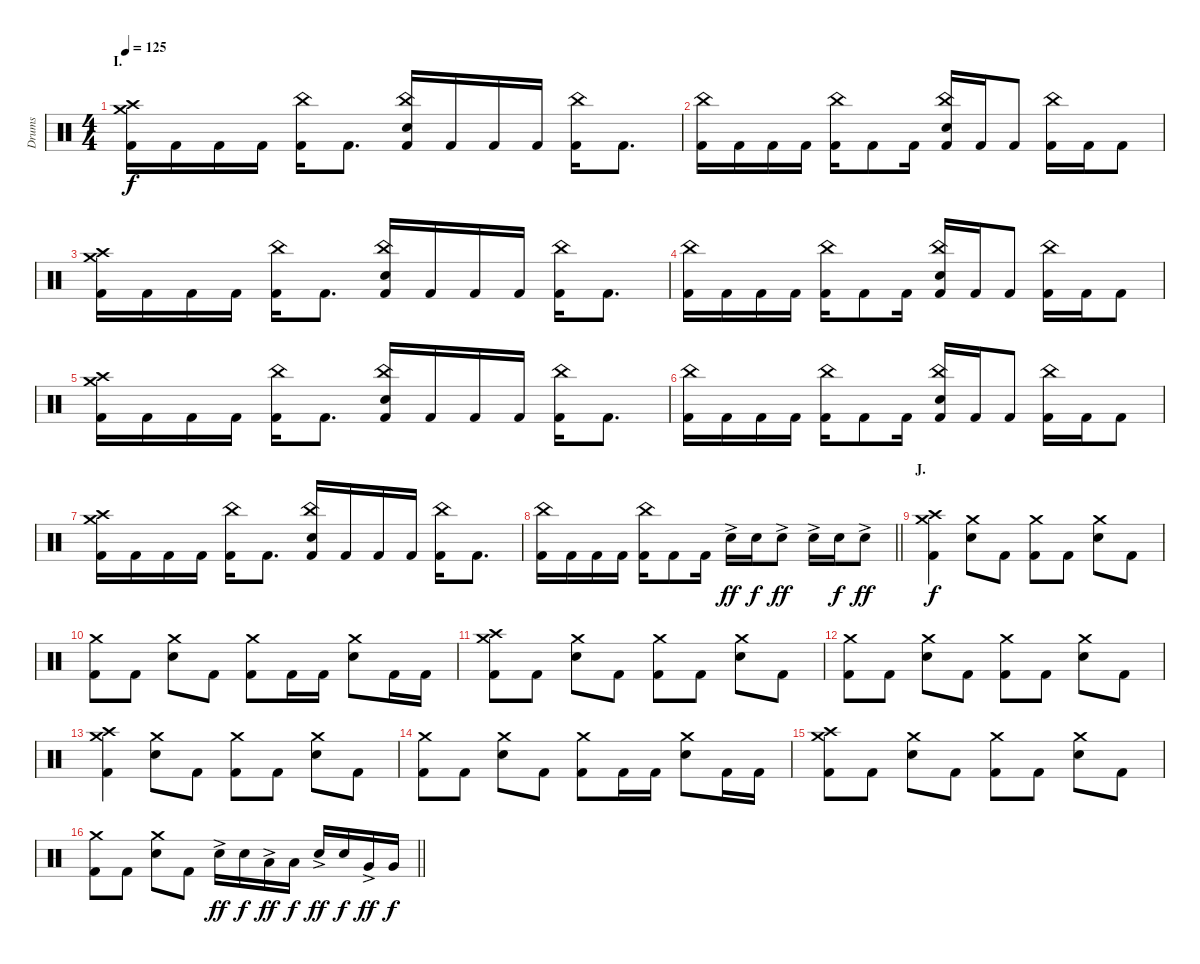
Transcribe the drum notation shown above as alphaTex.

\track ("Drums" "Drums") {instrument percussion}
\staff {score}
\articulation defaults
\ts (4 4)
\section ("" "I.")
\tempo 125
\clef neutral
\ks c
("Crash medium (hit)" "Crash high (hit)" "Kick (hit) 2").16{dy f} "Kick (hit) 2".16 "Kick (hit) 2".16 "Kick (hit) 2".16 ("China (hit)" "Kick (hit) 2").16 "Kick (hit) 2".8{d} ("China (hit)" "Electric Snare (hit)" "Kick (hit) 2").16 "Kick (hit) 2".16 "Kick (hit) 2".16 "Kick (hit) 2".16 ("China (hit)" "Kick (hit) 2").16 "Kick (hit) 2".8{d} |
("China (hit)" "Kick (hit) 2").16 "Kick (hit) 2".16 "Kick (hit) 2".16 "Kick (hit) 2".16 ("China (hit)" "Kick (hit) 2").16 "Kick (hit) 2".8 "Kick (hit) 2".16 ("China (hit)" "Electric Snare (hit)" "Kick (hit) 2").16 "Kick (hit) 2".16 "Kick (hit) 2".8 ("China (hit)" "Kick (hit) 2").16 "Kick (hit) 2".16 "Kick (hit) 2".8 |
("Crash medium (hit)" "Crash high (hit)" "Kick (hit) 2").16 "Kick (hit) 2".16 "Kick (hit) 2".16 "Kick (hit) 2".16 ("China (hit)" "Kick (hit) 2").16 "Kick (hit) 2".8{d} ("China (hit)" "Electric Snare (hit)" "Kick (hit) 2").16 "Kick (hit) 2".16 "Kick (hit) 2".16 "Kick (hit) 2".16 ("China (hit)" "Kick (hit) 2").16 "Kick (hit) 2".8{d} |
("China (hit)" "Kick (hit) 2").16 "Kick (hit) 2".16 "Kick (hit) 2".16 "Kick (hit) 2".16 ("China (hit)" "Kick (hit) 2").16 "Kick (hit) 2".8 "Kick (hit) 2".16 ("China (hit)" "Electric Snare (hit)" "Kick (hit) 2").16 "Kick (hit) 2".16 "Kick (hit) 2".8 ("China (hit)" "Kick (hit) 2").16 "Kick (hit) 2".16 "Kick (hit) 2".8 |
("Crash medium (hit)" "Crash high (hit)" "Kick (hit) 2").16 "Kick (hit) 2".16 "Kick (hit) 2".16 "Kick (hit) 2".16 ("China (hit)" "Kick (hit) 2").16 "Kick (hit) 2".8{d} ("China (hit)" "Electric Snare (hit)" "Kick (hit) 2").16 "Kick (hit) 2".16 "Kick (hit) 2".16 "Kick (hit) 2".16 ("China (hit)" "Kick (hit) 2").16 "Kick (hit) 2".8{d} |
("China (hit)" "Kick (hit) 2").16 "Kick (hit) 2".16 "Kick (hit) 2".16 "Kick (hit) 2".16 ("China (hit)" "Kick (hit) 2").16 "Kick (hit) 2".8 "Kick (hit) 2".16 ("China (hit)" "Electric Snare (hit)" "Kick (hit) 2").16 "Kick (hit) 2".16 "Kick (hit) 2".8 ("China (hit)" "Kick (hit) 2").16 "Kick (hit) 2".16 "Kick (hit) 2".8 |
("Crash medium (hit)" "Crash high (hit)" "Kick (hit) 2").16 "Kick (hit) 2".16 "Kick (hit) 2".16 "Kick (hit) 2".16 ("China (hit)" "Kick (hit) 2").16 "Kick (hit) 2".8{d} ("China (hit)" "Electric Snare (hit)" "Kick (hit) 2").16 "Kick (hit) 2".16 "Kick (hit) 2".16 "Kick (hit) 2".16 ("China (hit)" "Kick (hit) 2").16 "Kick (hit) 2".8{d} |
\barLineRight lightlight
("China (hit)" "Kick (hit) 2").16 "Kick (hit) 2".16 "Kick (hit) 2".16 "Kick (hit) 2".16 ("China (hit)" "Kick (hit) 2").16 "Kick (hit) 2".8 "Kick (hit) 2".16 "Electric Snare (hit)"{ac}.16{dy ff} "Electric Snare (hit)".16{dy f} "Electric Snare (hit)"{ac}.8{dy ff} "Electric Snare (hit)"{ac}.16 "Electric Snare (hit)".16{dy f} "Electric Snare (hit)"{ac}.8{dy ff} |
\section ("" "J.")
("Crash medium (hit)" "Crash high (hit)" "Kick (hit) 2").4{dy f} ("Crash medium (hit)" "Electric Snare (hit)").8 "Kick (hit) 2".8 ("Crash medium (hit)" "Kick (hit) 2").8 "Kick (hit) 2".8 ("Crash medium (hit)" "Electric Snare (hit)").8 "Kick (hit) 2".8 |
("Crash medium (hit)" "Kick (hit) 2").8 "Kick (hit) 2".8 ("Crash medium (hit)" "Electric Snare (hit)").8 "Kick (hit) 2".8 ("Crash medium (hit)" "Kick (hit) 2").8 "Kick (hit) 2".16 "Kick (hit) 2".16 ("Crash medium (hit)" "Electric Snare (hit)").8 "Kick (hit) 2".16 "Kick (hit) 2".16 |
("Crash medium (hit)" "Crash high (hit)" "Kick (hit) 2").8 "Kick (hit) 2".8 ("Crash medium (hit)" "Electric Snare (hit)").8 "Kick (hit) 2".8 ("Crash medium (hit)" "Kick (hit) 2").8 "Kick (hit) 2".8 ("Crash medium (hit)" "Electric Snare (hit)").8 "Kick (hit) 2".8 |
("Crash medium (hit)" "Kick (hit) 2").8 "Kick (hit) 2".8 ("Crash medium (hit)" "Electric Snare (hit)").8 "Kick (hit) 2".8 ("Crash medium (hit)" "Kick (hit) 2").8 "Kick (hit) 2".8 ("Crash medium (hit)" "Electric Snare (hit)").8 "Kick (hit) 2".8 |
("Crash medium (hit)" "Crash high (hit)" "Kick (hit) 2").4 ("Crash medium (hit)" "Electric Snare (hit)").8 "Kick (hit) 2".8 ("Crash medium (hit)" "Kick (hit) 2").8 "Kick (hit) 2".8 ("Crash medium (hit)" "Electric Snare (hit)").8 "Kick (hit) 2".8 |
("Crash medium (hit)" "Kick (hit) 2").8 "Kick (hit) 2".8 ("Crash medium (hit)" "Electric Snare (hit)").8 "Kick (hit) 2".8 ("Crash medium (hit)" "Kick (hit) 2").8 "Kick (hit) 2".16 "Kick (hit) 2".16 ("Crash medium (hit)" "Electric Snare (hit)").8 "Kick (hit) 2".16 "Kick (hit) 2".16 |
("Crash medium (hit)" "Crash high (hit)" "Kick (hit) 2").8 "Kick (hit) 2".8 ("Crash medium (hit)" "Electric Snare (hit)").8 "Kick (hit) 2".8 ("Crash medium (hit)" "Kick (hit) 2").8 "Kick (hit) 2".8 ("Crash medium (hit)" "Electric Snare (hit)").8 "Kick (hit) 2".8 |
\barLineRight lightlight
("Crash medium (hit)" "Kick (hit) 2").8 "Kick (hit) 2".8 ("Crash medium (hit)" "Electric Snare (hit)").8 "Kick (hit) 2".8 "Electric Snare (hit)"{ac}.16{dy ff} "Electric Snare (hit)".16{dy f} "Low Tom (hit)"{ac}.16{dy ff} "Low Tom (hit)".16{dy f} "Electric Snare (hit)"{ac}.16{dy ff} "Electric Snare (hit)".16{dy f} "Very Low Tom (hit)"{ac}.16{dy ff} "Very Low Tom (hit)".16{dy f}
